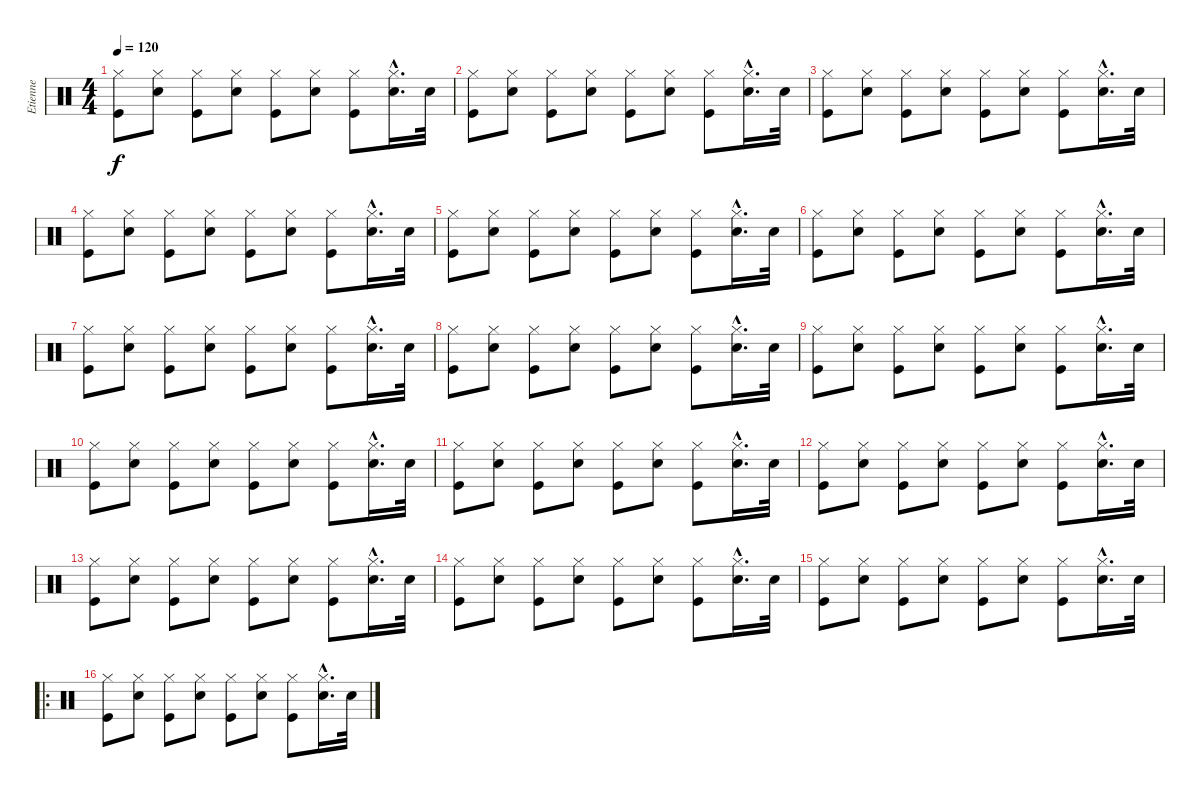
\track ("Etienne" "Etienne") {instrument percussion}
\staff {score}
\articulation defaults
\ts (4 4)
\tempo 120
\clef neutral
\ks c
("Hi-Hat (closed)" "Kick (hit)").8{dy f} ("Hi-Hat (closed)" "Snare (hit) 2").8 ("Hi-Hat (closed)" "Kick (hit)").8 ("Hi-Hat (closed)" "Snare (hit) 2").8 ("Hi-Hat (closed)" "Kick (hit)").8 ("Hi-Hat (closed)" "Snare (hit) 2").8 ("Hi-Hat (closed)" "Kick (hit)").8 ("Hi-Hat (closed)"{hac} "Snare (hit) 2"{hac}).16{d} "Snare (hit) 2".32 |
("Hi-Hat (closed)" "Kick (hit)").8 ("Hi-Hat (closed)" "Snare (hit) 2").8 ("Hi-Hat (closed)" "Kick (hit)").8 ("Hi-Hat (closed)" "Snare (hit) 2").8 ("Hi-Hat (closed)" "Kick (hit)").8 ("Hi-Hat (closed)" "Snare (hit) 2").8 ("Hi-Hat (closed)" "Kick (hit)").8 ("Hi-Hat (closed)"{hac} "Snare (hit) 2"{hac}).16{d} "Snare (hit) 2".32 |
("Hi-Hat (closed)" "Kick (hit)").8 ("Hi-Hat (closed)" "Snare (hit) 2").8 ("Hi-Hat (closed)" "Kick (hit)").8 ("Hi-Hat (closed)" "Snare (hit) 2").8 ("Hi-Hat (closed)" "Kick (hit)").8 ("Hi-Hat (closed)" "Snare (hit) 2").8 ("Hi-Hat (closed)" "Kick (hit)").8 ("Hi-Hat (closed)"{hac} "Snare (hit) 2"{hac}).16{d} "Snare (hit) 2".32 |
("Hi-Hat (closed)" "Kick (hit)").8 ("Hi-Hat (closed)" "Snare (hit) 2").8 ("Hi-Hat (closed)" "Kick (hit)").8 ("Hi-Hat (closed)" "Snare (hit) 2").8 ("Hi-Hat (closed)" "Kick (hit)").8 ("Hi-Hat (closed)" "Snare (hit) 2").8 ("Hi-Hat (closed)" "Kick (hit)").8 ("Hi-Hat (closed)"{hac} "Snare (hit) 2"{hac}).16{d} "Snare (hit) 2".32 |
("Hi-Hat (closed)" "Kick (hit)").8 ("Hi-Hat (closed)" "Snare (hit) 2").8 ("Hi-Hat (closed)" "Kick (hit)").8 ("Hi-Hat (closed)" "Snare (hit) 2").8 ("Hi-Hat (closed)" "Kick (hit)").8 ("Hi-Hat (closed)" "Snare (hit) 2").8 ("Hi-Hat (closed)" "Kick (hit)").8 ("Hi-Hat (closed)"{hac} "Snare (hit) 2"{hac}).16{d} "Snare (hit) 2".32 |
("Hi-Hat (closed)" "Kick (hit)").8 ("Hi-Hat (closed)" "Snare (hit) 2").8 ("Hi-Hat (closed)" "Kick (hit)").8 ("Hi-Hat (closed)" "Snare (hit) 2").8 ("Hi-Hat (closed)" "Kick (hit)").8 ("Hi-Hat (closed)" "Snare (hit) 2").8 ("Hi-Hat (closed)" "Kick (hit)").8 ("Hi-Hat (closed)"{hac} "Snare (hit) 2"{hac}).16{d} "Snare (hit) 2".32 |
("Hi-Hat (closed)" "Kick (hit)").8 ("Hi-Hat (closed)" "Snare (hit) 2").8 ("Hi-Hat (closed)" "Kick (hit)").8 ("Hi-Hat (closed)" "Snare (hit) 2").8 ("Hi-Hat (closed)" "Kick (hit)").8 ("Hi-Hat (closed)" "Snare (hit) 2").8 ("Hi-Hat (closed)" "Kick (hit)").8 ("Hi-Hat (closed)"{hac} "Snare (hit) 2"{hac}).16{d} "Snare (hit) 2".32 |
("Hi-Hat (closed)" "Kick (hit)").8 ("Hi-Hat (closed)" "Snare (hit) 2").8 ("Hi-Hat (closed)" "Kick (hit)").8 ("Hi-Hat (closed)" "Snare (hit) 2").8 ("Hi-Hat (closed)" "Kick (hit)").8 ("Hi-Hat (closed)" "Snare (hit) 2").8 ("Hi-Hat (closed)" "Kick (hit)").8 ("Hi-Hat (closed)"{hac} "Snare (hit) 2"{hac}).16{d} "Snare (hit) 2".32 |
("Hi-Hat (closed)" "Kick (hit)").8 ("Hi-Hat (closed)" "Snare (hit) 2").8 ("Hi-Hat (closed)" "Kick (hit)").8 ("Hi-Hat (closed)" "Snare (hit) 2").8 ("Hi-Hat (closed)" "Kick (hit)").8 ("Hi-Hat (closed)" "Snare (hit) 2").8 ("Hi-Hat (closed)" "Kick (hit)").8 ("Hi-Hat (closed)"{hac} "Snare (hit) 2"{hac}).16{d} "Snare (hit) 2".32 |
("Hi-Hat (closed)" "Kick (hit)").8 ("Hi-Hat (closed)" "Snare (hit) 2").8 ("Hi-Hat (closed)" "Kick (hit)").8 ("Hi-Hat (closed)" "Snare (hit) 2").8 ("Hi-Hat (closed)" "Kick (hit)").8 ("Hi-Hat (closed)" "Snare (hit) 2").8 ("Hi-Hat (closed)" "Kick (hit)").8 ("Hi-Hat (closed)"{hac} "Snare (hit) 2"{hac}).16{d} "Snare (hit) 2".32 |
("Hi-Hat (closed)" "Kick (hit)").8 ("Hi-Hat (closed)" "Snare (hit) 2").8 ("Hi-Hat (closed)" "Kick (hit)").8 ("Hi-Hat (closed)" "Snare (hit) 2").8 ("Hi-Hat (closed)" "Kick (hit)").8 ("Hi-Hat (closed)" "Snare (hit) 2").8 ("Hi-Hat (closed)" "Kick (hit)").8 ("Hi-Hat (closed)"{hac} "Snare (hit) 2"{hac}).16{d} "Snare (hit) 2".32 |
("Hi-Hat (closed)" "Kick (hit)").8 ("Hi-Hat (closed)" "Snare (hit) 2").8 ("Hi-Hat (closed)" "Kick (hit)").8 ("Hi-Hat (closed)" "Snare (hit) 2").8 ("Hi-Hat (closed)" "Kick (hit)").8 ("Hi-Hat (closed)" "Snare (hit) 2").8 ("Hi-Hat (closed)" "Kick (hit)").8 ("Hi-Hat (closed)"{hac} "Snare (hit) 2"{hac}).16{d} "Snare (hit) 2".32 |
("Hi-Hat (closed)" "Kick (hit)").8 ("Hi-Hat (closed)" "Snare (hit) 2").8 ("Hi-Hat (closed)" "Kick (hit)").8 ("Hi-Hat (closed)" "Snare (hit) 2").8 ("Hi-Hat (closed)" "Kick (hit)").8 ("Hi-Hat (closed)" "Snare (hit) 2").8 ("Hi-Hat (closed)" "Kick (hit)").8 ("Hi-Hat (closed)"{hac} "Snare (hit) 2"{hac}).16{d} "Snare (hit) 2".32 |
("Hi-Hat (closed)" "Kick (hit)").8 ("Hi-Hat (closed)" "Snare (hit) 2").8 ("Hi-Hat (closed)" "Kick (hit)").8 ("Hi-Hat (closed)" "Snare (hit) 2").8 ("Hi-Hat (closed)" "Kick (hit)").8 ("Hi-Hat (closed)" "Snare (hit) 2").8 ("Hi-Hat (closed)" "Kick (hit)").8 ("Hi-Hat (closed)"{hac} "Snare (hit) 2"{hac}).16{d} "Snare (hit) 2".32 |
("Hi-Hat (closed)" "Kick (hit)").8 ("Hi-Hat (closed)" "Snare (hit) 2").8 ("Hi-Hat (closed)" "Kick (hit)").8 ("Hi-Hat (closed)" "Snare (hit) 2").8 ("Hi-Hat (closed)" "Kick (hit)").8 ("Hi-Hat (closed)" "Snare (hit) 2").8 ("Hi-Hat (closed)" "Kick (hit)").8 ("Hi-Hat (closed)"{hac} "Snare (hit) 2"{hac}).16{d} "Snare (hit) 2".32 |
\ro
("Hi-Hat (closed)" "Kick (hit)").8 ("Hi-Hat (closed)" "Snare (hit) 2").8 ("Hi-Hat (closed)" "Kick (hit)").8 ("Hi-Hat (closed)" "Snare (hit) 2").8 ("Hi-Hat (closed)" "Kick (hit)").8 ("Hi-Hat (closed)" "Snare (hit) 2").8 ("Hi-Hat (closed)" "Kick (hit)").8 ("Hi-Hat (closed)"{hac} "Snare (hit) 2"{hac}).16{d} "Snare (hit) 2".32
